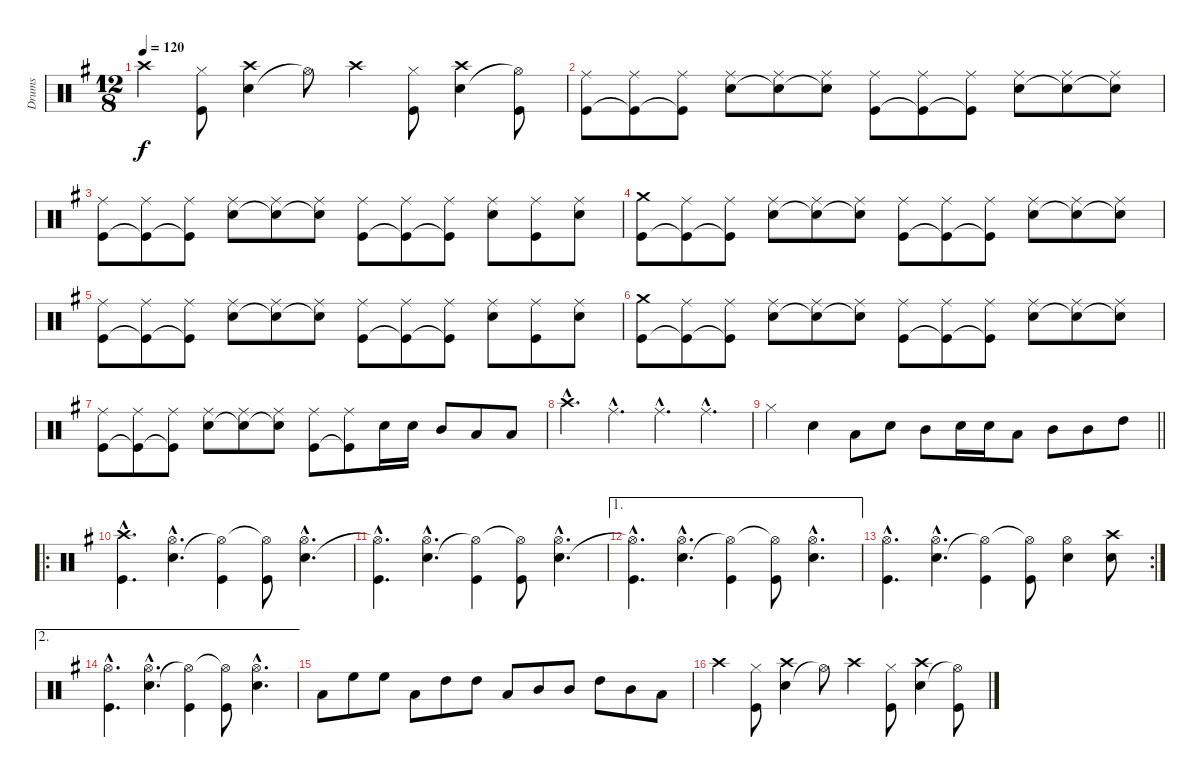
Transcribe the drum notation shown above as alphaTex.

\track ("Drums" "Drums") {instrument percussion}
\staff {score}
\articulation defaults
\ts (12 8)
\tempo 120
\clef neutral
\ks g "Crash high (hit)".4{dy f}
("Hi-Hat (closed)" "Kick (hit)").8 ("Snare (hit) 2" "Crash high (hit)").4 "Hi-Hat (open)"{t}.8 "Crash high (hit)".4 ("Hi-Hat (closed)" "Kick (hit)").8 ("Snare (hit) 2" "Crash high (hit)").4 ("Hi-Hat (open)"{t} "Kick (hit)").8 |
("Ride (middle)" "Kick (hit)").8 ("Ride (middle)" "Kick (hit)"{t}).8 ("Ride (middle)" "Kick (hit)"{t}).8 ("Snare (hit) 2" "Ride (middle)").8 ("Snare (hit) 2"{t} "Ride (middle)").8 ("Snare (hit) 2"{t} "Ride (middle)").8 ("Ride (middle)" "Kick (hit)").8 ("Ride (middle)" "Kick (hit)"{t}).8 ("Ride (middle)" "Kick (hit)"{t}).8 ("Snare (hit) 2" "Ride (middle)").8 ("Snare (hit) 2"{t} "Ride (middle)").8 ("Snare (hit) 2"{t} "Ride (middle)").8 |
("Ride (middle)" "Kick (hit)").8 ("Ride (middle)" "Kick (hit)"{t}).8 ("Ride (middle)" "Kick (hit)"{t}).8 ("Snare (hit) 2" "Ride (middle)").8 ("Snare (hit) 2"{t} "Ride (middle)").8 ("Snare (hit) 2"{t} "Ride (middle)").8 ("Ride (middle)" "Kick (hit)").8 ("Ride (middle)" "Kick (hit)"{t}).8 ("Ride (middle)" "Kick (hit)"{t}).8 ("Snare (hit) 2" "Ride (middle)").8 ("Ride (middle)" "Kick (hit)").8 ("Snare (hit) 2" "Ride (middle)").8 |
("Crash medium (hit)" "Kick (hit)").8 ("Ride (middle)" "Kick (hit)"{t}).8 ("Ride (middle)" "Kick (hit)"{t}).8 ("Snare (hit) 2" "Ride (middle)").8 ("Snare (hit) 2"{t} "Ride (middle)").8 ("Snare (hit) 2"{t} "Ride (middle)").8 ("Ride (middle)" "Kick (hit)").8 ("Ride (middle)" "Kick (hit)"{t}).8 ("Ride (middle)" "Kick (hit)"{t}).8 ("Snare (hit) 2" "Ride (middle)").8 ("Snare (hit) 2"{t} "Ride (middle)").8 ("Snare (hit) 2"{t} "Ride (middle)").8 |
("Ride (middle)" "Kick (hit)").8 ("Ride (middle)" "Kick (hit)"{t}).8 ("Ride (middle)" "Kick (hit)"{t}).8 ("Snare (hit) 2" "Ride (middle)").8 ("Snare (hit) 2"{t} "Ride (middle)").8 ("Snare (hit) 2"{t} "Ride (middle)").8 ("Ride (middle)" "Kick (hit)").8 ("Ride (middle)" "Kick (hit)"{t}).8 ("Ride (middle)" "Kick (hit)"{t}).8 ("Snare (hit) 2" "Ride (middle)").8 ("Ride (middle)" "Kick (hit)").8 ("Snare (hit) 2" "Ride (middle)").8 |
("Crash medium (hit)" "Kick (hit)").8 ("Ride (middle)" "Kick (hit)"{t}).8 ("Ride (middle)" "Kick (hit)"{t}).8 ("Snare (hit) 2" "Ride (middle)").8 ("Snare (hit) 2"{t} "Ride (middle)").8 ("Snare (hit) 2"{t} "Ride (middle)").8 ("Ride (middle)" "Kick (hit)").8 ("Ride (middle)" "Kick (hit)"{t}).8 ("Ride (middle)" "Kick (hit)"{t}).8 ("Snare (hit) 2" "Ride (middle)").8 ("Snare (hit) 2"{t} "Ride (middle)").8 ("Snare (hit) 2"{t} "Ride (middle)").8 |
("Ride (middle)" "Kick (hit)").8 ("Ride (middle)" "Kick (hit)"{t}).8 ("Ride (middle)" "Kick (hit)"{t}).8 ("Snare (hit) 2" "Ride (middle)").8 ("Snare (hit) 2"{t} "Ride (middle)").8 ("Snare (hit) 2"{t} "Ride (middle)").8 ("Ride (middle)" "Kick (hit)").8 ("Ride (middle)" "Kick (hit)"{t}).8 "Snare (hit) 2".16 "Snare (hit) 2".16 "Mid Tom (hit)".8 "Low Tom (hit)".8 "Low Tom (hit)".8 |
"Crash high (hit)"{hac}.4{d} "Ride (middle)"{hac}.4{d} "Ride (middle)"{hac}.4{d} "Ride (middle)"{hac}.4{d} |
\barLineRight lightlight "Hi-Hat (closed)".4 "Snare (hit) 2".4 "Low Tom (hit)".8 "Snare (hit) 2".8 "Mid Tom (hit)".8 "Snare (hit) 2".16 "Snare (hit) 2".16 "Low Tom (hit)".8 "Mid Tom (hit)".8 "Mid Tom (hit)".8 "High Tom (hit)".8
|
\ro
("Crash high (hit)"{hac} "Kick (hit)"{hac}).4{d} ("Snare (hit) 2"{hac} "Hi-Hat (open)"{hac}).4{d} ("Hi-Hat (open)"{t} "Kick (hit)").4 ("Hi-Hat (open)"{t} "Kick (hit)").8 ("Snare (hit) 2"{hac} "Hi-Hat (open)"{hac}).4{d} |
("Hi-Hat (open)"{hac t} "Kick (hit)"{hac}).4{d} ("Snare (hit) 2"{hac} "Hi-Hat (open)"{hac}).4{d} ("Hi-Hat (open)"{t} "Kick (hit)").4 ("Hi-Hat (open)"{t} "Kick (hit)").8 ("Snare (hit) 2"{hac} "Hi-Hat (open)"{hac}).4{d} |
\ae 1
("Hi-Hat (open)"{hac t} "Kick (hit)"{hac}).4{d} ("Snare (hit) 2"{hac} "Hi-Hat (open)"{hac}).4{d} ("Hi-Hat (open)"{t} "Kick (hit)").4 ("Hi-Hat (open)"{t} "Kick (hit)").8 ("Snare (hit) 2"{hac} "Hi-Hat (open)"{hac}).4{d} |
\rc 2
("Hi-Hat (open)"{hac} "Kick (hit)"{hac}).4{d} ("Snare (hit) 2"{hac} "Hi-Hat (open)"{hac}).4{d} ("Hi-Hat (open)"{t} "Kick (hit)").4 ("Hi-Hat (open)"{t} "Kick (hit)").8 ("Snare (hit) 2" "Hi-Hat (open)").4 ("Snare (hit) 2" "Crash high (hit)").8 |
\ae 2
("Hi-Hat (open)"{hac} "Kick (hit)"{hac}).4{d} ("Snare (hit) 2"{hac} "Hi-Hat (open)"{hac}).4{d} ("Hi-Hat (open)"{t} "Kick (hit)").4 ("Hi-Hat (open)"{t} "Kick (hit)").8 ("Snare (hit) 2"{hac} "Hi-Hat (open)"{hac}).4{d} |
"Low Tom (hit)".8 "High Floor Tom (hit)".8 "High Floor Tom (hit)".8 "Low Tom (hit)".8 "High Tom (hit)".8 "High Tom (hit)".8 "Low Tom (hit)".8 "Mid Tom (hit)".8 "Mid Tom (hit)".8 "High Tom (hit)".8 "Mid Tom (hit)".8 "Low Tom (hit)".8 |
"Crash high (hit)".4 ("Hi-Hat (closed)" "Kick (hit)").8 ("Snare (hit) 2" "Crash high (hit)").4 "Hi-Hat (open)"{t}.8 "Crash high (hit)".4 ("Hi-Hat (closed)" "Kick (hit)").8 ("Snare (hit) 2" "Crash high (hit)").4 ("Hi-Hat (open)"{t} "Kick (hit)").8
